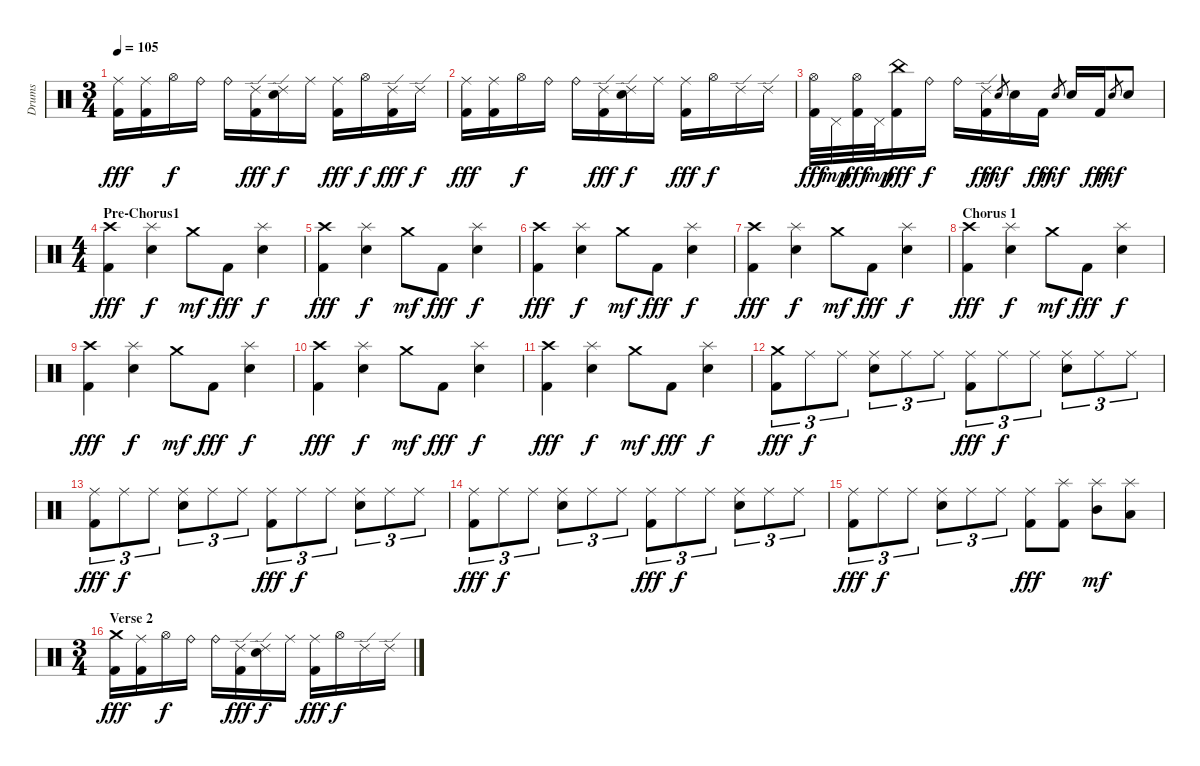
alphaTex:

\track ("Drums" "Drums") {instrument percussion}
\staff {score}
\articulation defaults
\ts (3 4)
\tempo 105
\clef neutral
\ks c
("Ride (middle)" "Kick (hit) 2").16{dy fff} ("Ride (middle)" "Kick (hit) 2").16 "Hi-Hat (open)".16{dy f} "Ride (bell)".16 "Ride (bell)".16 ("Ride (edge) 2" "Kick (hit) 2").16{dy fff} ("Ride (edge) 2" "Electric Snare (hit)").16{dy f} "Ride (middle)".16 ("Ride (middle)" "Kick (hit) 2").16{dy fff} "Hi-Hat (open)".16{dy f} ("Ride (edge) 2" "Kick (hit) 2").16{dy fff} "Ride (edge) 2".16{dy f} |
("Ride (middle)" "Kick (hit) 2").16{dy fff} ("Ride (middle)" "Kick (hit) 2").16 "Hi-Hat (open)".16{dy f} "Ride (bell)".16 "Ride (bell)".16 ("Ride (edge) 2" "Kick (hit) 2").16{dy fff} ("Ride (edge) 2" "Electric Snare (hit)").16{dy f} "Ride (middle)".16 ("Ride (middle)" "Kick (hit) 2").16{dy fff} "Hi-Hat (open)".16{dy f} "Ride (edge) 2".16 "Ride (edge) 2".16 |
("Hi-Hat (open)" "Kick (hit) 2").32{dy fff} "Pedal Hi-Hat (hit)".32{dy mp} ("Hi-Hat (open)" "Kick (hit) 2").32{dy fff} "Pedal Hi-Hat (hit)".32{dy mp} ("China (hit)" "Kick (hit) 2").16{dy fff} "Ride (bell)".16{dy f} "Ride (bell)".16 ("Ride (edge) 2" "Kick (hit) 2").16{dy fff} "Electric Snare (hit)".8{gr dy mf} "Electric Snare (hit)".16 "Kick (hit) 2".16{dy fff} "Electric Snare (hit)".8{gr dy mf} "Electric Snare (hit)".16 "Kick (hit) 2".16{dy fff} "Electric Snare (hit)".8{gr dy mf} "Electric Snare (hit)".8 |
\ts (4 4)
\section ("" "Pre-Chorus1")
("Crash high (hit)" "Kick (hit) 2").4{dy fff} ("Splash (hit)" "Electric Snare (hit)").4{dy f} "Crash medium (hit)".8{dy mf} "Kick (hit) 2".8{dy fff} ("Splash (hit)" "Electric Snare (hit)").4{dy f} |
("Crash high (hit)" "Kick (hit) 2").4{dy fff} ("Splash (hit)" "Electric Snare (hit)").4{dy f} "Crash medium (hit)".8{dy mf} "Kick (hit) 2".8{dy fff} ("Splash (hit)" "Electric Snare (hit)").4{dy f} |
("Crash high (hit)" "Kick (hit) 2").4{dy fff} ("Splash (hit)" "Electric Snare (hit)").4{dy f} "Crash medium (hit)".8{dy mf} "Kick (hit) 2".8{dy fff} ("Splash (hit)" "Electric Snare (hit)").4{dy f} |
("Crash high (hit)" "Kick (hit) 2").4{dy fff} ("Splash (hit)" "Electric Snare (hit)").4{dy f} "Crash medium (hit)".8{dy mf} "Kick (hit) 2".8{dy fff} ("Splash (hit)" "Electric Snare (hit)").4{dy f} |
\section ("" "Chorus 1")
("Crash high (hit)" "Kick (hit) 2").4{dy fff} ("Splash (hit)" "Electric Snare (hit)").4{dy f} "Crash medium (hit)".8{dy mf} "Kick (hit) 2".8{dy fff} ("Splash (hit)" "Electric Snare (hit)").4{dy f} |
("Crash high (hit)" "Kick (hit) 2").4{dy fff} ("Splash (hit)" "Electric Snare (hit)").4{dy f} "Crash medium (hit)".8{dy mf} "Kick (hit) 2".8{dy fff} ("Splash (hit)" "Electric Snare (hit)").4{dy f} |
("Crash high (hit)" "Kick (hit) 2").4{dy fff} ("Splash (hit)" "Electric Snare (hit)").4{dy f} "Crash medium (hit)".8{dy mf} "Kick (hit) 2".8{dy fff} ("Splash (hit)" "Electric Snare (hit)").4{dy f} |
("Crash high (hit)" "Kick (hit) 2").4{dy fff} ("Splash (hit)" "Electric Snare (hit)").4{dy f} "Crash medium (hit)".8{dy mf} "Kick (hit) 2".8{dy fff} ("Splash (hit)" "Electric Snare (hit)").4{dy f} |
("Crash medium (hit)" "Kick (hit) 2").8{tu (3 2) dy fff} "Ride (middle)".8{tu (3 2) dy f} "Ride (middle)".8{tu (3 2)} ("Ride (middle)" "Electric Snare (hit)").8{tu (3 2)} "Ride (middle)".8{tu (3 2)} "Ride (middle)".8{tu (3 2)} ("Ride (middle)" "Kick (hit) 2").8{tu (3 2) dy fff} "Ride (middle)".8{tu (3 2) dy f} "Ride (middle)".8{tu (3 2)} ("Ride (middle)" "Electric Snare (hit)").8{tu (3 2)} "Ride (middle)".8{tu (3 2)} "Ride (middle)".8{tu (3 2)} |
("Ride (middle)" "Kick (hit) 2").8{tu (3 2) dy fff} "Ride (middle)".8{tu (3 2) dy f} "Ride (middle)".8{tu (3 2)} ("Ride (middle)" "Electric Snare (hit)").8{tu (3 2)} "Ride (middle)".8{tu (3 2)} "Ride (middle)".8{tu (3 2)} ("Ride (middle)" "Kick (hit) 2").8{tu (3 2) dy fff} "Ride (middle)".8{tu (3 2) dy f} "Ride (middle)".8{tu (3 2)} ("Ride (middle)" "Electric Snare (hit)").8{tu (3 2)} "Ride (middle)".8{tu (3 2)} "Ride (middle)".8{tu (3 2)} |
("Ride (middle)" "Kick (hit) 2").8{tu (3 2) dy fff} "Ride (middle)".8{tu (3 2) dy f} "Ride (middle)".8{tu (3 2)} ("Ride (middle)" "Electric Snare (hit)").8{tu (3 2)} "Ride (middle)".8{tu (3 2)} "Ride (middle)".8{tu (3 2)} ("Ride (middle)" "Kick (hit) 2").8{tu (3 2) dy fff} "Ride (middle)".8{tu (3 2) dy f} "Ride (middle)".8{tu (3 2)} ("Ride (middle)" "Electric Snare (hit)").8{tu (3 2)} "Ride (middle)".8{tu (3 2)} "Ride (middle)".8{tu (3 2)} |
("Ride (middle)" "Kick (hit) 2").8{tu (3 2) dy fff} "Ride (middle)".8{tu (3 2) dy f} "Ride (middle)".8{tu (3 2)} ("Ride (middle)" "Electric Snare (hit)").8{tu (3 2)} "Ride (middle)".8{tu (3 2)} "Ride (middle)".8{tu (3 2)} ("Ride (middle)" "Kick (hit) 2").8{dy fff} ("Splash (hit)" "Kick (hit) 2").8 ("Splash (hit)" "Mid Tom (hit)").8{dy mf} ("Splash (hit)" "Low Tom (hit)").8 |
\ts (3 4)
\section ("" "Verse 2")
("Crash medium (hit)" "Kick (hit) 2").16{dy fff} ("Ride (middle)" "Kick (hit) 2").16 "Hi-Hat (open)".16{dy f} "Ride (bell)".16 "Ride (bell)".16 ("Ride (edge) 2" "Kick (hit) 2").16{dy fff} ("Ride (edge) 2" "Electric Snare (hit)").16{dy f} "Ride (middle)".16 ("Ride (middle)" "Kick (hit) 2").16{dy fff} "Hi-Hat (open)".16{dy f} "Ride (edge) 2".16 "Ride (edge) 2".16
